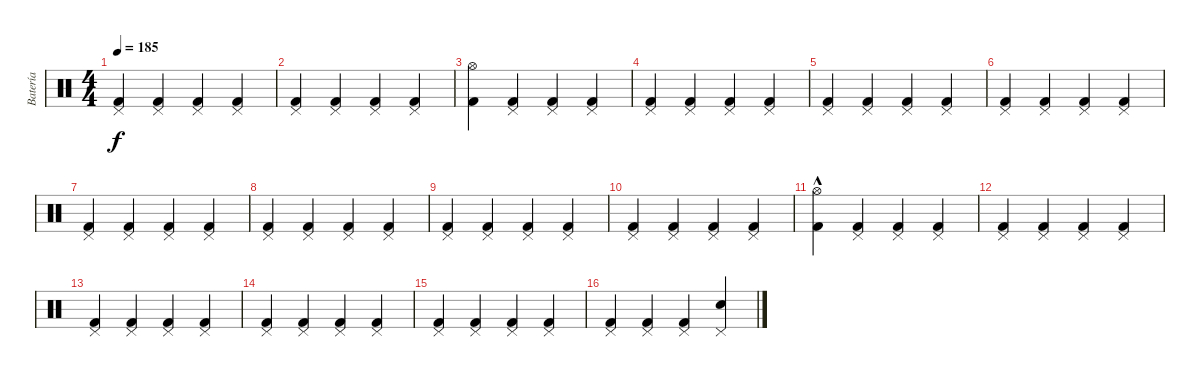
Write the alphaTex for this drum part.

\track ("Batería" "Batería") {instrument percussion}
\staff {score}
\articulation defaults
\ts (4 4)
\tempo 185
\clef neutral
\ks c
("Pedal Hi-Hat (hit)" "Kick (hit) 2").4{dy f} ("Pedal Hi-Hat (hit)" "Kick (hit) 2").4 ("Pedal Hi-Hat (hit)" "Kick (hit) 2").4 ("Pedal Hi-Hat (hit)" "Kick (hit) 2").4 |
("Pedal Hi-Hat (hit)" "Kick (hit) 2").4 ("Pedal Hi-Hat (hit)" "Kick (hit) 2").4 ("Pedal Hi-Hat (hit)" "Kick (hit) 2").4 ("Pedal Hi-Hat (hit)" "Kick (hit) 2").4 |
("Hi-Hat (open)" "Kick (hit) 2").4 ("Pedal Hi-Hat (hit)" "Kick (hit) 2").4 ("Pedal Hi-Hat (hit)" "Kick (hit) 2").4 ("Pedal Hi-Hat (hit)" "Kick (hit) 2").4 |
("Pedal Hi-Hat (hit)" "Kick (hit) 2").4 ("Pedal Hi-Hat (hit)" "Kick (hit) 2").4 ("Pedal Hi-Hat (hit)" "Kick (hit) 2").4 ("Pedal Hi-Hat (hit)" "Kick (hit) 2").4 |
("Pedal Hi-Hat (hit)" "Kick (hit) 2").4 ("Pedal Hi-Hat (hit)" "Kick (hit) 2").4 ("Pedal Hi-Hat (hit)" "Kick (hit) 2").4 ("Pedal Hi-Hat (hit)" "Kick (hit) 2").4 |
("Pedal Hi-Hat (hit)" "Kick (hit) 2").4 ("Pedal Hi-Hat (hit)" "Kick (hit) 2").4 ("Pedal Hi-Hat (hit)" "Kick (hit) 2").4 ("Pedal Hi-Hat (hit)" "Kick (hit) 2").4 |
("Pedal Hi-Hat (hit)" "Kick (hit) 2").4 ("Pedal Hi-Hat (hit)" "Kick (hit) 2").4 ("Pedal Hi-Hat (hit)" "Kick (hit) 2").4 ("Pedal Hi-Hat (hit)" "Kick (hit) 2").4 |
("Pedal Hi-Hat (hit)" "Kick (hit) 2").4 ("Pedal Hi-Hat (hit)" "Kick (hit) 2").4 ("Pedal Hi-Hat (hit)" "Kick (hit) 2").4 ("Pedal Hi-Hat (hit)" "Kick (hit) 2").4 |
("Pedal Hi-Hat (hit)" "Kick (hit) 2").4 ("Pedal Hi-Hat (hit)" "Kick (hit) 2").4 ("Pedal Hi-Hat (hit)" "Kick (hit) 2").4 ("Pedal Hi-Hat (hit)" "Kick (hit) 2").4 |
("Pedal Hi-Hat (hit)" "Kick (hit) 2").4 ("Pedal Hi-Hat (hit)" "Kick (hit) 2").4 ("Pedal Hi-Hat (hit)" "Kick (hit) 2").4 ("Pedal Hi-Hat (hit)" "Kick (hit) 2").4 |
("Hi-Hat (open)"{hac} "Kick (hit) 2").4 ("Pedal Hi-Hat (hit)" "Kick (hit) 2").4 ("Pedal Hi-Hat (hit)" "Kick (hit) 2").4 ("Pedal Hi-Hat (hit)" "Kick (hit) 2").4 |
("Pedal Hi-Hat (hit)" "Kick (hit) 2").4 ("Pedal Hi-Hat (hit)" "Kick (hit) 2").4 ("Pedal Hi-Hat (hit)" "Kick (hit) 2").4 ("Pedal Hi-Hat (hit)" "Kick (hit) 2").4 |
("Pedal Hi-Hat (hit)" "Kick (hit) 2").4 ("Pedal Hi-Hat (hit)" "Kick (hit) 2").4 ("Pedal Hi-Hat (hit)" "Kick (hit) 2").4 ("Pedal Hi-Hat (hit)" "Kick (hit) 2").4 |
("Pedal Hi-Hat (hit)" "Kick (hit) 2").4 ("Pedal Hi-Hat (hit)" "Kick (hit) 2").4 ("Pedal Hi-Hat (hit)" "Kick (hit) 2").4 ("Pedal Hi-Hat (hit)" "Kick (hit) 2").4 |
("Pedal Hi-Hat (hit)" "Kick (hit) 2").4 ("Pedal Hi-Hat (hit)" "Kick (hit) 2").4 ("Pedal Hi-Hat (hit)" "Kick (hit) 2").4 ("Pedal Hi-Hat (hit)" "Kick (hit) 2").4 |
("Pedal Hi-Hat (hit)" "Kick (hit) 2").4 ("Pedal Hi-Hat (hit)" "Kick (hit) 2").4 ("Pedal Hi-Hat (hit)" "Kick (hit) 2").4 ("Pedal Hi-Hat (hit)" "Snare (hit) 2").4
